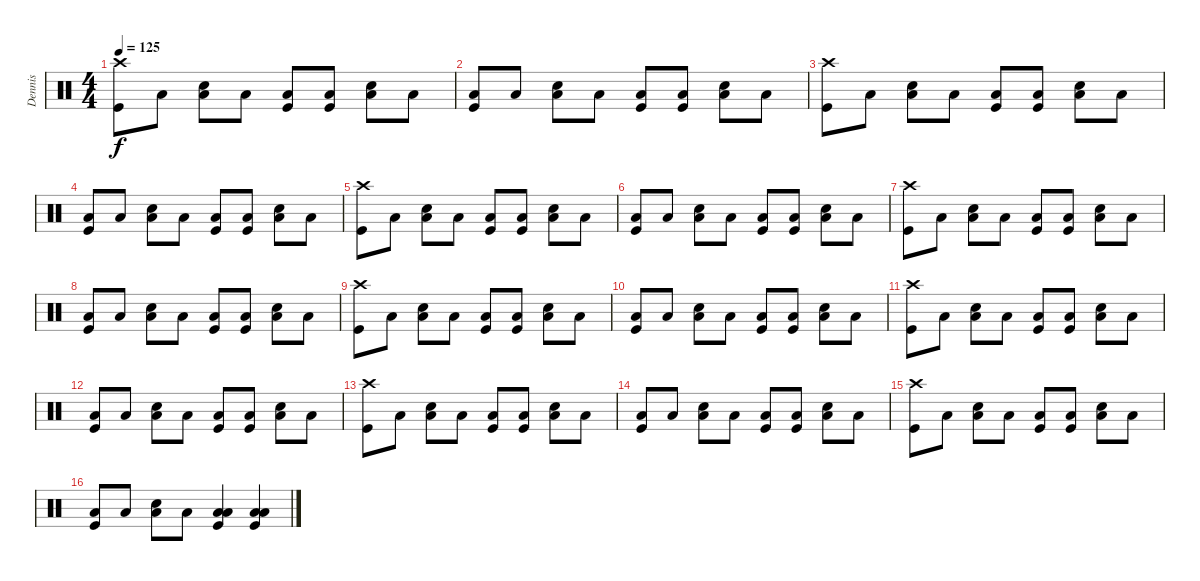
\track ("Dennis" "Dennis") {instrument percussion}
\staff {score}
\articulation defaults
\ts (4 4)
\tempo 125
\clef neutral
\ks c
("Kick (hit)" "Crash high (hit)").8{dy f} "Low Floor Tom (hit)".8 ("Electric Snare (hit)" "Low Floor Tom (hit)").8 "Low Floor Tom (hit)".8 ("Kick (hit)" "Low Floor Tom (hit)").8 ("Kick (hit)" "Low Floor Tom (hit)").8 ("Electric Snare (hit)" "Low Floor Tom (hit)").8 "Low Floor Tom (hit)".8 |
("Kick (hit)" "Low Floor Tom (hit)").8 "Low Floor Tom (hit)".8 ("Electric Snare (hit)" "Low Floor Tom (hit)").8 "Low Floor Tom (hit)".8 ("Kick (hit)" "Low Floor Tom (hit)").8 ("Kick (hit)" "Low Floor Tom (hit)").8 ("Electric Snare (hit)" "Low Floor Tom (hit)").8 "Low Floor Tom (hit)".8 |
("Kick (hit)" "Crash high (hit)").8 "Low Floor Tom (hit)".8 ("Electric Snare (hit)" "Low Floor Tom (hit)").8 "Low Floor Tom (hit)".8 ("Kick (hit)" "Low Floor Tom (hit)").8 ("Kick (hit)" "Low Floor Tom (hit)").8 ("Electric Snare (hit)" "Low Floor Tom (hit)").8 "Low Floor Tom (hit)".8 |
("Kick (hit)" "Low Floor Tom (hit)").8 "Low Floor Tom (hit)".8 ("Electric Snare (hit)" "Low Floor Tom (hit)").8 "Low Floor Tom (hit)".8 ("Kick (hit)" "Low Floor Tom (hit)").8 ("Kick (hit)" "Low Floor Tom (hit)").8 ("Electric Snare (hit)" "Low Floor Tom (hit)").8 "Low Floor Tom (hit)".8 |
("Kick (hit)" "Crash high (hit)").8 "Low Floor Tom (hit)".8 ("Electric Snare (hit)" "Low Floor Tom (hit)").8 "Low Floor Tom (hit)".8 ("Kick (hit)" "Low Floor Tom (hit)").8 ("Kick (hit)" "Low Floor Tom (hit)").8 ("Electric Snare (hit)" "Low Floor Tom (hit)").8 "Low Floor Tom (hit)".8 |
("Kick (hit)" "Low Floor Tom (hit)").8 "Low Floor Tom (hit)".8 ("Electric Snare (hit)" "Low Floor Tom (hit)").8 "Low Floor Tom (hit)".8 ("Kick (hit)" "Low Floor Tom (hit)").8 ("Kick (hit)" "Low Floor Tom (hit)").8 ("Electric Snare (hit)" "Low Floor Tom (hit)").8 "Low Floor Tom (hit)".8 |
("Kick (hit)" "Crash high (hit)").8 "Low Floor Tom (hit)".8 ("Electric Snare (hit)" "Low Floor Tom (hit)").8 "Low Floor Tom (hit)".8 ("Kick (hit)" "Low Floor Tom (hit)").8 ("Kick (hit)" "Low Floor Tom (hit)").8 ("Electric Snare (hit)" "Low Floor Tom (hit)").8 "Low Floor Tom (hit)".8 |
("Kick (hit)" "Low Floor Tom (hit)").8 "Low Floor Tom (hit)".8 ("Electric Snare (hit)" "Low Floor Tom (hit)").8 "Low Floor Tom (hit)".8 ("Kick (hit)" "Low Floor Tom (hit)").8 ("Kick (hit)" "Low Floor Tom (hit)").8 ("Electric Snare (hit)" "Low Floor Tom (hit)").8 "Low Floor Tom (hit)".8 |
("Kick (hit)" "Crash high (hit)").8 "Low Floor Tom (hit)".8 ("Electric Snare (hit)" "Low Floor Tom (hit)").8 "Low Floor Tom (hit)".8 ("Kick (hit)" "Low Floor Tom (hit)").8 ("Kick (hit)" "Low Floor Tom (hit)").8 ("Electric Snare (hit)" "Low Floor Tom (hit)").8 "Low Floor Tom (hit)".8 |
("Kick (hit)" "Low Floor Tom (hit)").8 "Low Floor Tom (hit)".8 ("Electric Snare (hit)" "Low Floor Tom (hit)").8 "Low Floor Tom (hit)".8 ("Kick (hit)" "Low Floor Tom (hit)").8 ("Kick (hit)" "Low Floor Tom (hit)").8 ("Electric Snare (hit)" "Low Floor Tom (hit)").8 "Low Floor Tom (hit)".8 |
("Kick (hit)" "Crash high (hit)").8 "Low Floor Tom (hit)".8 ("Electric Snare (hit)" "Low Floor Tom (hit)").8 "Low Floor Tom (hit)".8 ("Kick (hit)" "Low Floor Tom (hit)").8 ("Kick (hit)" "Low Floor Tom (hit)").8 ("Electric Snare (hit)" "Low Floor Tom (hit)").8 "Low Floor Tom (hit)".8 |
("Kick (hit)" "Low Floor Tom (hit)").8 "Low Floor Tom (hit)".8 ("Electric Snare (hit)" "Low Floor Tom (hit)").8 "Low Floor Tom (hit)".8 ("Kick (hit)" "Low Floor Tom (hit)").8 ("Kick (hit)" "Low Floor Tom (hit)").8 ("Electric Snare (hit)" "Low Floor Tom (hit)").8 "Low Floor Tom (hit)".8 |
("Kick (hit)" "Crash high (hit)").8 "Low Floor Tom (hit)".8 ("Electric Snare (hit)" "Low Floor Tom (hit)").8 "Low Floor Tom (hit)".8 ("Kick (hit)" "Low Floor Tom (hit)").8 ("Kick (hit)" "Low Floor Tom (hit)").8 ("Electric Snare (hit)" "Low Floor Tom (hit)").8 "Low Floor Tom (hit)".8 |
("Kick (hit)" "Low Floor Tom (hit)").8 "Low Floor Tom (hit)".8 ("Electric Snare (hit)" "Low Floor Tom (hit)").8 "Low Floor Tom (hit)".8 ("Kick (hit)" "Low Floor Tom (hit)").8 ("Kick (hit)" "Low Floor Tom (hit)").8 ("Electric Snare (hit)" "Low Floor Tom (hit)").8 "Low Floor Tom (hit)".8 |
("Kick (hit)" "Crash high (hit)").8 "Low Floor Tom (hit)".8 ("Electric Snare (hit)" "Low Floor Tom (hit)").8 "Low Floor Tom (hit)".8 ("Kick (hit)" "Low Floor Tom (hit)").8 ("Kick (hit)" "Low Floor Tom (hit)").8 ("Electric Snare (hit)" "Low Floor Tom (hit)").8 "Low Floor Tom (hit)".8 |
("Kick (hit)" "Low Floor Tom (hit)").8 "Low Floor Tom (hit)".8 ("Electric Snare (hit)" "Low Floor Tom (hit)").8 "Low Floor Tom (hit)".8 ("Kick (hit)" "Low Floor Tom (hit)" "Low Tom (hit)").4 ("Kick (hit)" "Low Floor Tom (hit)" "Low Tom (hit)").4
